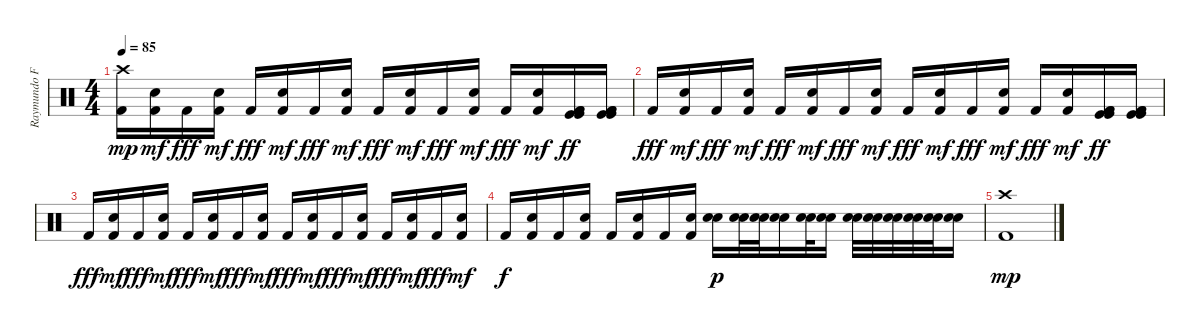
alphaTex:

\track ("Raymundo Fajardo (Bateria)" "Raymundo F") {instrument percussion}
\staff {score}
\articulation defaults
\ts (4 4)
\tempo 85
\clef neutral
\ks c
("Kick (hit) 2" "Crash high (hit)").16{dy mp} ("Kick (hit) 2" "Electric Snare (hit)").16{dy mf} "Kick (hit) 2".16{dy fff} ("Kick (hit) 2" "Electric Snare (hit)").16{dy mf} "Kick (hit) 2".16{dy fff} ("Kick (hit) 2" "Electric Snare (hit)").16{dy mf} "Kick (hit) 2".16{dy fff} ("Kick (hit) 2" "Electric Snare (hit)").16{dy mf} "Kick (hit) 2".16{dy fff} ("Kick (hit) 2" "Electric Snare (hit)").16{dy mf} "Kick (hit) 2".16{dy fff} ("Kick (hit) 2" "Electric Snare (hit)").16{dy mf} "Kick (hit) 2".16{dy fff} ("Kick (hit) 2" "Electric Snare (hit)").16{dy mf} ("Kick (hit) 2" "Kick (hit)" "Kick (hit) 2" "Kick (hit)").16{dy ff} ("Kick (hit) 2" "Kick (hit)" "Kick (hit) 2" "Kick (hit)").16 |
"Kick (hit) 2".16{dy fff} ("Kick (hit) 2" "Electric Snare (hit)").16{dy mf} "Kick (hit) 2".16{dy fff} ("Kick (hit) 2" "Electric Snare (hit)").16{dy mf} "Kick (hit) 2".16{dy fff} ("Kick (hit) 2" "Electric Snare (hit)").16{dy mf} "Kick (hit) 2".16{dy fff} ("Kick (hit) 2" "Electric Snare (hit)").16{dy mf} "Kick (hit) 2".16{dy fff} ("Kick (hit) 2" "Electric Snare (hit)").16{dy mf} "Kick (hit) 2".16{dy fff} ("Kick (hit) 2" "Electric Snare (hit)").16{dy mf} "Kick (hit) 2".16{dy fff} ("Kick (hit) 2" "Electric Snare (hit)").16{dy mf} ("Kick (hit) 2" "Kick (hit)" "Kick (hit) 2" "Kick (hit)").16{dy ff} ("Kick (hit) 2" "Kick (hit)" "Kick (hit) 2" "Kick (hit)").16 |
"Kick (hit) 2".16{dy fff} ("Kick (hit) 2" "Electric Snare (hit)").16{dy mf} "Kick (hit) 2".16{dy fff} ("Kick (hit) 2" "Electric Snare (hit)").16{dy mf} "Kick (hit) 2".16{dy fff} ("Kick (hit) 2" "Electric Snare (hit)").16{dy mf} "Kick (hit) 2".16{dy fff} ("Kick (hit) 2" "Electric Snare (hit)").16{dy mf} "Kick (hit) 2".16{dy fff} ("Kick (hit) 2" "Electric Snare (hit)").16{dy mf} "Kick (hit) 2".16{dy fff} ("Kick (hit) 2" "Electric Snare (hit)").16{dy mf} "Kick (hit) 2".16{dy fff} ("Kick (hit) 2" "Electric Snare (hit)").16{dy mf} "Kick (hit) 2".16{dy fff} ("Kick (hit) 2" "Electric Snare (hit)").16{dy mf} |
"Kick (hit) 2".16{dy f} ("Kick (hit) 2" "Electric Snare (hit)").16 "Kick (hit) 2".16 ("Kick (hit) 2" "Electric Snare (hit)").16 "Kick (hit) 2".16 ("Kick (hit) 2" "Electric Snare (hit)").16 "Kick (hit) 2".16 ("Kick (hit) 2" "Electric Snare (hit)").16 ("Snare (hit) 2" "Electric Snare (hit)").16{dy p} ("Snare (hit) 2" "Electric Snare (hit)").32 ("Snare (hit) 2" "Electric Snare (hit)").32 ("Snare (hit) 2" "Electric Snare (hit)").16 ("Snare (hit) 2" "Electric Snare (hit)").32 ("Snare (hit) 2" "Electric Snare (hit)").16 ("Snare (hit) 2" "Electric Snare (hit)").32 ("Snare (hit) 2" "Electric Snare (hit)").32 ("Snare (hit) 2" "Electric Snare (hit)").32 ("Snare (hit) 2" "Electric Snare (hit)").32 ("Snare (hit) 2" "Electric Snare (hit)").32 ("Snare (hit) 2" "Electric Snare (hit)").16 |
("Crash high (hit)" "Kick (hit) 2").1{dy mp}
